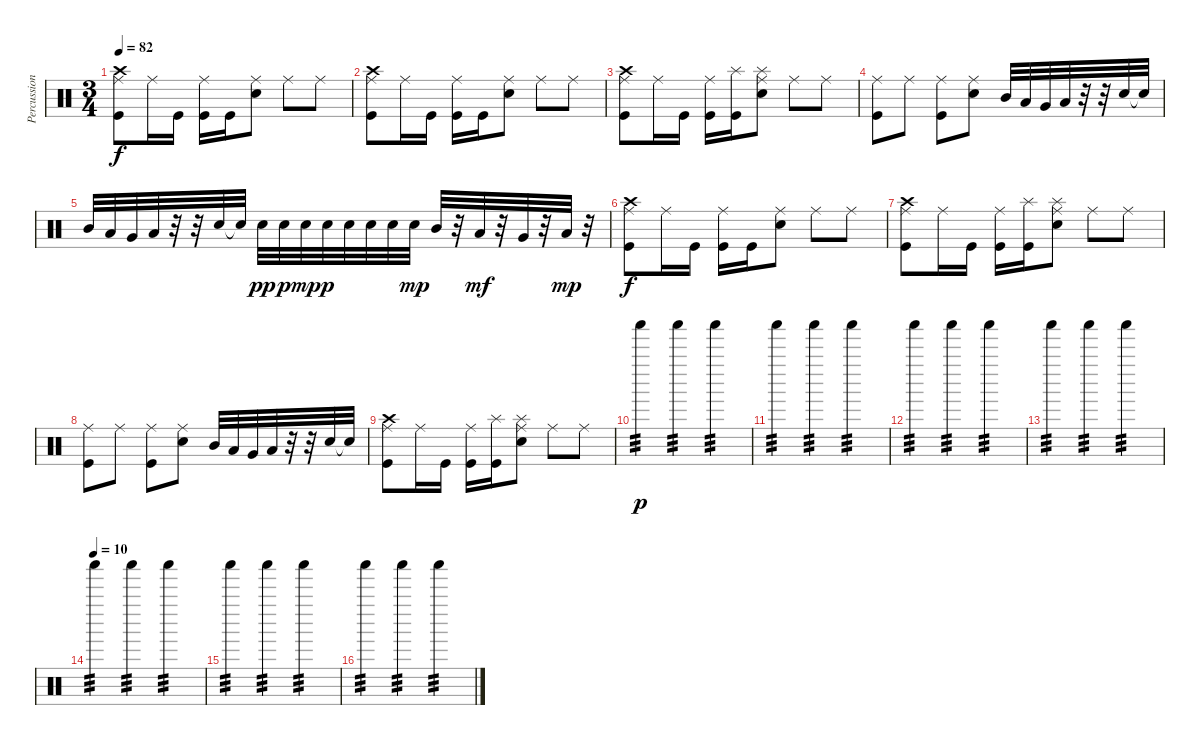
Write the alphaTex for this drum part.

\track ("Percussions" "Percussion") {instrument percussion}
\staff {score}
\articulation defaults
\ts (3 4)
\tempo 82
\clef neutral
\ks c
("Ride (middle)" "Crash high (hit)" "Kick (hit)").8{dy f} "Ride (middle)".16 "Kick (hit)".16 ("Ride (middle)" "Kick (hit)").16 "Kick (hit)".16 ("Ride (middle)" "Electric Snare (hit)").8 "Ride (middle)".8 "Ride (middle)".8 |
("Ride (middle)" "Crash high (hit)" "Kick (hit)").8 "Ride (middle)".16 "Kick (hit)".16 ("Ride (middle)" "Kick (hit)").16 "Kick (hit)".16 ("Ride (middle)" "Electric Snare (hit)").8 "Ride (middle)".8 "Ride (middle)".8 |
("Ride (middle)" "Crash high (hit)" "Kick (hit)").8 "Ride (middle)".16 "Kick (hit)".16 ("Ride (middle)" "Kick (hit)").16 ("Splash (hit)" "Kick (hit)").16 ("Ride (middle)" "Splash (hit)" "Electric Snare (hit)").8 "Ride (middle)".8 "Ride (middle)".8 |
("Ride (middle)" "Kick (hit)").8 "Ride (middle)".8 ("Ride (middle)" "Kick (hit)").8 ("Ride (middle)" "Electric Snare (hit)").8 "Mid Tom (hit)".32 "Low Tom (hit)".32 "Very Low Tom (hit)".32 "Low Floor Tom (hit)".32 r.32 r.32 "Electric Snare (hit)".32 "Snare (hit)"{t}.32 |
"Mid Tom (hit)".32 "Low Tom (hit)".32 "Very Low Tom (hit)".32 "Low Floor Tom (hit)".32 r.32 r.32 "Snare (hit) 2".32 "Snare (hit)"{t}.32 "Electric Snare (hit)".32{dy pp} "Electric Snare (hit)".32{dy p} "Electric Snare (hit)".32{dy mp} "Electric Snare (hit)".32{dy p} "Electric Snare (hit)".32 "Electric Snare (hit)".32 "Electric Snare (hit)".32 "Electric Snare (hit)".32{dy mp} "Mid Tom (hit)".32 r.32 "Low Tom (hit)".32{dy mf} r.32 "Very Low Tom (hit)".32 r.32 "Low Floor Tom (hit)".32{dy mp} r.32 |
("Ride (middle)" "Crash high (hit)" "Kick (hit)").8{dy f} "Ride (middle)".16 "Kick (hit)".16 ("Ride (middle)" "Kick (hit)").16 "Kick (hit)".16 ("Ride (middle)" "Electric Snare (hit)").8 "Ride (middle)".8 "Ride (middle)".8 |
("Ride (middle)" "Crash high (hit)" "Kick (hit)").8 "Ride (middle)".16 "Kick (hit)".16 ("Ride (middle)" "Kick (hit)").16 ("Splash (hit)" "Kick (hit)").16 ("Ride (middle)" "Splash (hit)" "Electric Snare (hit)").8 "Ride (middle)".8 "Ride (middle)".8 |
("Ride (middle)" "Kick (hit)").8 "Ride (middle)".8 ("Ride (middle)" "Kick (hit)").8 ("Ride (middle)" "Electric Snare (hit)").8 "Mid Tom (hit)".32 "Low Tom (hit)".32 "Very Low Tom (hit)".32 "Low Floor Tom (hit)".32 r.32 r.32 "Electric Snare (hit)".32 "Snare (hit)"{t}.32 |
("Ride (middle)" "Crash high (hit)" "Kick (hit)").8 "Ride (middle)".16 "Kick (hit)".16 ("Ride (middle)" "Kick (hit)").16 ("Splash (hit)" "Kick (hit)").16 ("Ride (middle)" "Splash (hit)" "Electric Snare (hit)").8 "Ride (middle)".8 "Ride (middle)".8 |
"Shaker (hit)".4{tp 3 dy p} "Shaker (hit)".4{tp 3} "Shaker (hit)".4{tp 3} |
"Shaker (hit)".4{tp 3} "Shaker (hit)".4{tp 3} "Shaker (hit)".4{tp 3} |
"Shaker (hit)".4{tp 3} "Shaker (hit)".4{tp 3} "Shaker (hit)".4{tp 3} |
"Shaker (hit)".4{tp 3} "Shaker (hit)".4{tp 3} "Shaker (hit)".4{tp 3} |
\tempo (10)
"Shaker (hit)".4{tp 3} "Shaker (hit)".4{tp 3} "Shaker (hit)".4{tp 3} |
"Shaker (hit)".4{tp 3} "Shaker (hit)".4{tp 3} "Shaker (hit)".4{tp 3} |
"Shaker (hit)".4{tp 3} "Shaker (hit)".4{tp 3} "Shaker (hit)".4{tp 3}
